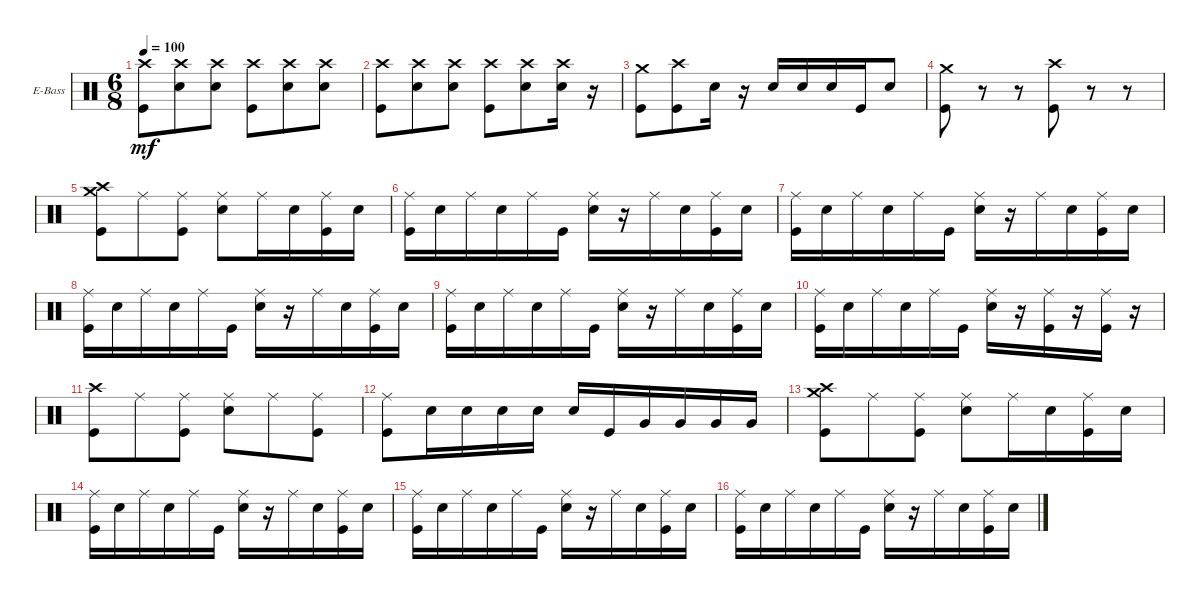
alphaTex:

\defaultSystemsLayout 4
\bracketExtendMode groupsimilarinstruments
\firstSystemTrackNameOrientation horizontal
\otherSystemsTrackNameOrientation horizontal
\track ("Drums" "E-Bass") {instrument percussion}
\staff {score}
\articulation defaults
\ts (6 8)
\tempo 100
\clef neutral
\ks c
("Crash high (hit)" "Kick (hit)").8{dy mf} ("Crash high (hit)" "Snare (hit) 2").8 ("Crash high (hit)" "Snare (hit) 2").8 ("Crash high (hit)" "Kick (hit)").8 ("Snare (hit) 2" "Crash high (hit)").8 ("Snare (hit) 2" "Crash high (hit)").8 |
("Crash high (hit)" "Kick (hit)").8 ("Crash high (hit)" "Snare (hit) 2").8 ("Crash high (hit)" "Snare (hit) 2").8 ("Crash high (hit)" "Kick (hit)").8 ("Snare (hit) 2" "Crash high (hit)").8 ("Snare (hit) 2" "Crash high (hit)").16 r.16 |
("Kick (hit)" "Crash medium (hit)").8 ("Kick (hit)" "Crash high (hit)").8 "Snare (hit) 2".16 r.16 "Snare (hit) 2".16 "Snare (hit) 2".16 "Snare (hit) 2".16 "Kick (hit)".16 "Snare (hit) 2".8 |
("Kick (hit)" "Crash medium (hit)").8 r.8 r.8 ("Kick (hit)" "Crash high (hit)").8 r.8 r.8 |
("Kick (hit)" "Crash medium (hit)" "Crash high (hit)").8 "Ride (middle)".8 ("Ride (middle)" "Kick (hit)").8 ("Ride (middle)" "Snare (hit) 2").8 "Ride (middle)".16 "Snare (hit) 2".16 ("Ride (middle)" "Kick (hit)").16 "Snare (hit) 2".16 |
("Ride (middle)" "Kick (hit)").16 "Snare (hit) 2".16 "Ride (middle)".16 "Snare (hit) 2".16 "Ride (middle)".16 "Kick (hit)".16 ("Snare (hit) 2" "Ride (middle)").16 r.16 "Ride (middle)".16 "Snare (hit) 2".16 ("Ride (middle)" "Kick (hit)").16 "Snare (hit) 2".16 |
("Ride (middle)" "Kick (hit)").16 "Snare (hit) 2".16 "Ride (middle)".16 "Snare (hit) 2".16 "Ride (middle)".16 "Kick (hit)".16 ("Ride (middle)" "Snare (hit) 2").16 r.16 "Ride (middle)".16 "Snare (hit) 2".16 ("Ride (middle)" "Kick (hit)").16 "Snare (hit) 2".16 |
("Ride (middle)" "Kick (hit)").16 "Snare (hit) 2".16 "Ride (middle)".16 "Snare (hit) 2".16 "Ride (middle)".16 "Kick (hit)".16 ("Ride (middle)" "Snare (hit) 2").16 r.16 "Ride (middle)".16 "Snare (hit) 2".16 ("Ride (middle)" "Kick (hit)").16 "Snare (hit) 2".16 |
("Kick (hit)" "Ride (middle)").16 "Snare (hit) 2".16 "Ride (middle)".16 "Snare (hit) 2".16 "Ride (middle)".16 "Kick (hit)".16 ("Ride (middle)" "Snare (hit) 2").16 r.16 "Ride (middle)".16 "Snare (hit) 2".16 ("Ride (middle)" "Kick (hit)").16 "Snare (hit) 2".16 |
("Ride (middle)" "Kick (hit)").16 "Snare (hit) 2".16 "Ride (middle)".16 "Snare (hit) 2".16 "Ride (middle)".16 "Kick (hit)".16 ("Ride (middle)" "Snare (hit) 2").16 r.16 ("Ride (middle)" "Kick (hit)").16 r.16 ("Ride (middle)" "Kick (hit)").16 r.16 |
("Kick (hit)" "Crash high (hit)").8 "Ride (middle)".8 ("Ride (middle)" "Kick (hit)").8 ("Ride (middle)" "Snare (hit) 2").8 "Ride (middle)".8 ("Ride (middle)" "Kick (hit)").8 |
("Kick (hit)" "Ride (middle)").8 "Snare (hit) 2".16 "Snare (hit) 2".16 "Snare (hit) 2".16 "Snare (hit) 2".16 "Snare (hit) 2".16 "Kick (hit)".16 "Very Low Tom (hit)".16 "Very Low Tom (hit)".16 "Very Low Tom (hit)".16 "Very Low Tom (hit)".16 |
("Kick (hit)" "Crash medium (hit)" "Crash high (hit)").8 "Ride (middle)".8 ("Ride (middle)" "Kick (hit)").8 ("Ride (middle)" "Snare (hit) 2").8 "Ride (middle)".16 "Snare (hit) 2".16 ("Ride (middle)" "Kick (hit)").16 "Snare (hit) 2".16 |
("Ride (middle)" "Kick (hit)").16 "Snare (hit) 2".16 "Ride (middle)".16 "Snare (hit) 2".16 "Ride (middle)".16 "Kick (hit)".16 ("Snare (hit) 2" "Ride (middle)").16 r.16 "Ride (middle)".16 "Snare (hit) 2".16 ("Ride (middle)" "Kick (hit)").16 "Snare (hit) 2".16 |
("Ride (middle)" "Kick (hit)").16 "Snare (hit) 2".16 "Ride (middle)".16 "Snare (hit) 2".16 "Ride (middle)".16 "Kick (hit)".16 ("Ride (middle)" "Snare (hit) 2").16 r.16 "Ride (middle)".16 "Snare (hit) 2".16 ("Ride (middle)" "Kick (hit)").16 "Snare (hit) 2".16 |
("Ride (middle)" "Kick (hit)").16 "Snare (hit) 2".16 "Ride (middle)".16 "Snare (hit) 2".16 "Ride (middle)".16 "Kick (hit)".16 ("Ride (middle)" "Snare (hit) 2").16 r.16 "Ride (middle)".16 "Snare (hit) 2".16 ("Ride (middle)" "Kick (hit)").16 "Snare (hit) 2".16
